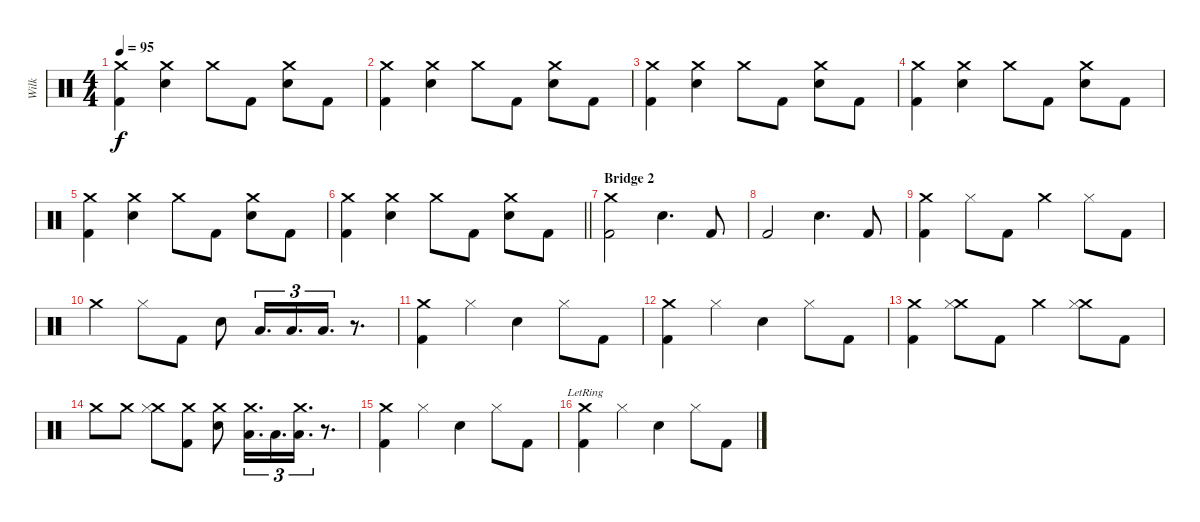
\track ("Wilk" "Wilk") {instrument percussion}
\staff {score}
\articulation defaults
\ts (4 4)
\tempo 95
\clef neutral
\ks c
("Crash medium (hit)" "Kick (hit) 2").4{dy f} ("Crash medium (hit)" "Snare (hit) 2").4 "Crash medium (hit)".8 "Kick (hit) 2".8 ("Crash medium (hit)" "Snare (hit) 2").8 "Kick (hit) 2".8 |
("Crash medium (hit)" "Kick (hit) 2").4 ("Crash medium (hit)" "Snare (hit) 2").4 "Crash medium (hit)".8 "Kick (hit) 2".8 ("Crash medium (hit)" "Snare (hit) 2").8 "Kick (hit) 2".8 |
("Crash medium (hit)" "Kick (hit) 2").4 ("Crash medium (hit)" "Snare (hit) 2").4 "Crash medium (hit)".8 "Kick (hit) 2".8 ("Crash medium (hit)" "Snare (hit) 2").8 "Kick (hit) 2".8 |
("Crash medium (hit)" "Kick (hit) 2").4 ("Crash medium (hit)" "Snare (hit) 2").4 "Crash medium (hit)".8 "Kick (hit) 2".8 ("Crash medium (hit)" "Snare (hit) 2").8 "Kick (hit) 2".8 |
("Crash medium (hit)" "Kick (hit) 2").4 ("Crash medium (hit)" "Snare (hit) 2").4 "Crash medium (hit)".8 "Kick (hit) 2".8 ("Crash medium (hit)" "Snare (hit) 2").8 "Kick (hit) 2".8 |
\barLineRight lightlight
("Crash medium (hit)" "Kick (hit) 2").4 ("Crash medium (hit)" "Snare (hit) 2").4 "Crash medium (hit)".8 "Kick (hit) 2".8 ("Crash medium (hit)" "Snare (hit) 2").8 "Kick (hit) 2".8 |
\section ("" "Bridge 2")
("Crash medium (hit)" "Kick (hit) 2").2 "Snare (hit) 2".4{d} "Kick (hit) 2".8 |
"Kick (hit) 2".2 "Snare (hit) 2".4{d} "Kick (hit) 2".8 |
("Crash medium (hit)" "Kick (hit) 2").4 "Hi-Hat (closed)".8 "Kick (hit) 2".8 "Crash medium (hit)".4 "Hi-Hat (closed)".8 "Kick (hit) 2".8 |
"Crash medium (hit)".4 "Hi-Hat (closed)".8 "Kick (hit) 2".8 "Snare (hit) 2".8 "Low Tom (hit)".16{d tu (3 2)} "Low Tom (hit)".16{d tu (3 2)} "Low Tom (hit)".16{d tu (3 2)} r.8{d} |
("Crash medium (hit)" "Kick (hit) 2").4 "Hi-Hat (closed)".4 "Snare (hit) 2".4 "Hi-Hat (closed)".8 "Kick (hit) 2".8 |
("Crash medium (hit)" "Kick (hit) 2").4 "Hi-Hat (closed)".4 "Snare (hit) 2".4 "Hi-Hat (closed)".8 "Kick (hit) 2".8 |
("Crash medium (hit)" "Kick (hit) 2").4 ("Crash medium (hit)" "Hi-Hat (closed)").8 "Kick (hit) 2".8 "Crash medium (hit)".4 ("Crash medium (hit)" "Hi-Hat (closed)").8 "Kick (hit) 2".8 |
"Crash medium (hit)".8 "Crash medium (hit)".8 ("Crash medium (hit)" "Hi-Hat (closed)").8 ("Crash medium (hit)" "Kick (hit) 2").8 ("Crash medium (hit)" "Snare (hit) 2").8 ("Crash medium (hit)" "Low Tom (hit)").16{d tu (3 2)} "Low Tom (hit)".16{d tu (3 2)} ("Crash medium (hit)" "Low Tom (hit)").16{d tu (3 2)} r.8{d} |
("Crash medium (hit)" "Kick (hit) 2").4 "Hi-Hat (closed)".4 "Snare (hit) 2".4 "Hi-Hat (closed)".8 "Kick (hit) 2".8 |
("Crash medium (hit)"{lr} "Kick (hit) 2").4 "Hi-Hat (closed)".4 "Snare (hit) 2".4 "Hi-Hat (closed)".8 "Kick (hit) 2".8
